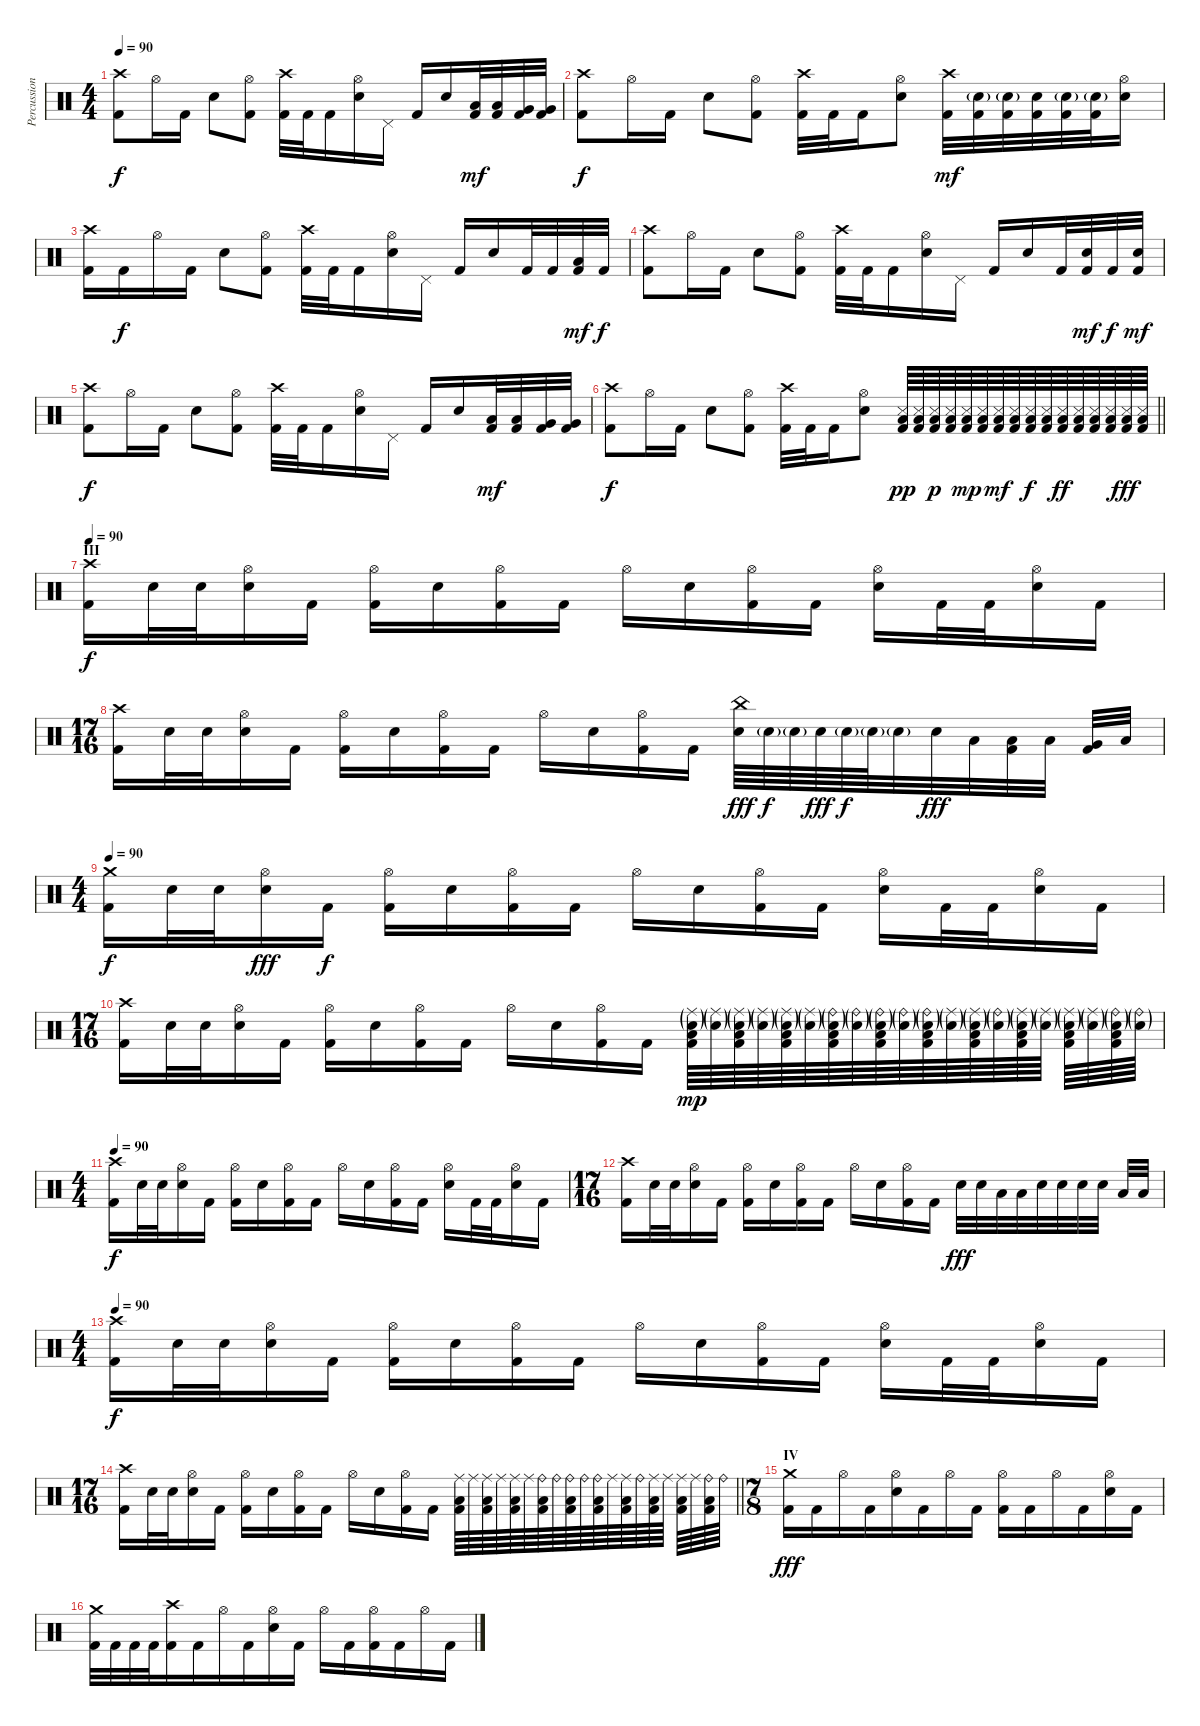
\track ("Percussion" "Percussion") {instrument percussion}
\staff {score}
\articulation defaults
\ts (4 4)
\tempo 90
\clef neutral
\ks c
("Crash high (hit)" "Kick (hit) 2").8{dy f} "Hi-Hat (open)".16 "Kick (hit) 2".16 "Snare (hit) 2".8 ("Hi-Hat (open)" "Kick (hit) 2").8 ("Crash high (hit)" "Kick (hit) 2").32 "Kick (hit) 2".32 "Kick (hit) 2".16 ("Hi-Hat (open)" "Snare (hit) 2").16 "Pedal Hi-Hat (hit)".16 "Kick (hit) 2".16 "Snare (hit) 2".16 ("Low Tom (hit)" "Kick (hit) 2").32{dy mf} ("Low Tom (hit)" "Kick (hit) 2").32 ("Very Low Tom (hit)" "Kick (hit) 2").32 ("Very Low Tom (hit)" "Kick (hit) 2").32 |
("Crash high (hit)" "Kick (hit) 2").8{dy f} "Hi-Hat (open)".16 "Kick (hit) 2".16 "Snare (hit) 2".8 ("Hi-Hat (open)" "Kick (hit) 2").8 ("Crash high (hit)" "Kick (hit) 2").32 "Kick (hit) 2".32 "Kick (hit) 2".16 ("Hi-Hat (open)" "Snare (hit) 2").8 ("Crash high (hit)" "Kick (hit) 2").32{dy mf} ("Snare (hit) 2"{g} "Kick (hit) 2").32 ("Snare (hit) 2"{g} "Kick (hit) 2").32 ("Snare (hit) 2" "Kick (hit) 2").32 ("Snare (hit) 2"{g} "Kick (hit) 2").32 ("Snare (hit) 2"{g} "Kick (hit) 2").32 ("Hi-Hat (open)" "Snare (hit) 2").16 |
("Crash high (hit)" "Kick (hit) 2").16 "Kick (hit) 2".16{dy f} "Hi-Hat (open)".16 "Kick (hit) 2".16 "Snare (hit) 2".8 ("Hi-Hat (open)" "Kick (hit) 2").8 ("Crash high (hit)" "Kick (hit) 2").32 "Kick (hit) 2".32 "Kick (hit) 2".16 ("Hi-Hat (open)" "Snare (hit) 2").16 "Pedal Hi-Hat (hit)".16 "Kick (hit) 2".16 "Snare (hit) 2".16 "Kick (hit) 2".32 "Kick (hit) 2".32 ("Low Floor Tom (hit)" "Kick (hit) 2").32{dy mf} "Kick (hit) 2".32{dy f} |
("Crash high (hit)" "Kick (hit) 2").8 "Hi-Hat (open)".16 "Kick (hit) 2".16 "Snare (hit) 2".8 ("Hi-Hat (open)" "Kick (hit) 2").8 ("Crash high (hit)" "Kick (hit) 2").32 "Kick (hit) 2".32 "Kick (hit) 2".16 ("Hi-Hat (open)" "Snare (hit) 2").16 "Pedal Hi-Hat (hit)".16 "Kick (hit) 2".16 "Snare (hit) 2".16 "Kick (hit) 2".32 ("Snare (hit) 2" "Kick (hit) 2").32{dy mf} "Kick (hit) 2".32{dy f} ("Snare (hit) 2" "Kick (hit) 2").32{dy mf} |
("Crash high (hit)" "Kick (hit) 2").8{dy f} "Hi-Hat (open)".16 "Kick (hit) 2".16 "Snare (hit) 2".8 ("Hi-Hat (open)" "Kick (hit) 2").8 ("Crash high (hit)" "Kick (hit) 2").32 "Kick (hit) 2".32 "Kick (hit) 2".16 ("Hi-Hat (open)" "Snare (hit) 2").16 "Pedal Hi-Hat (hit)".16 "Kick (hit) 2".16 "Snare (hit) 2".16 ("Low Tom (hit)" "Kick (hit) 2").32{dy mf} ("Low Tom (hit)" "Kick (hit) 2").32 ("Very Low Tom (hit)" "Kick (hit) 2").32 ("Very Low Tom (hit)" "Kick (hit) 2").32 |
\barLineRight lightlight
("Crash high (hit)" "Kick (hit) 2").8{dy f} "Hi-Hat (open)".16 "Kick (hit) 2".16 "Snare (hit) 2".8 ("Hi-Hat (open)" "Kick (hit) 2").8 ("Crash high (hit)" "Kick (hit) 2").32 "Kick (hit) 2".32 "Kick (hit) 2".16 ("Hi-Hat (open)" "Snare (hit) 2").8 ("Snare (side stick) 3" "Low Floor Tom (hit)" "Kick (hit) 2").64{dy pp} ("Snare (side stick) 3" "Low Floor Tom (hit)" "Kick (hit) 2").64 ("Snare (side stick) 3" "Low Floor Tom (hit)" "Kick (hit) 2").64{dy p} ("Snare (side stick) 3" "Low Floor Tom (hit)" "Kick (hit) 2").64 ("Snare (side stick) 3" "Low Floor Tom (hit)" "Kick (hit) 2").64{dy mp} ("Snare (side stick) 3" "Low Floor Tom (hit)" "Kick (hit) 2").64 ("Snare (side stick) 3" "Low Floor Tom (hit)" "Kick (hit) 2").64{dy mf} ("Snare (side stick) 3" "Low Floor Tom (hit)" "Kick (hit) 2").64 ("Snare (side stick) 3" "Low Floor Tom (hit)" "Kick (hit) 2").64{dy f} ("Snare (side stick) 3" "Low Floor Tom (hit)" "Kick (hit) 2").64 ("Snare (side stick) 3" "Low Floor Tom (hit)" "Kick (hit) 2").64{dy ff} ("Snare (side stick) 3" "Low Floor Tom (hit)" "Kick (hit) 2").64 ("Snare (side stick) 3" "Low Floor Tom (hit)" "Kick (hit) 2").64 ("Snare (side stick) 3" "Low Floor Tom (hit)" "Kick (hit) 2").64 ("Snare (side stick) 3" "Low Floor Tom (hit)" "Kick (hit) 2").64{dy fff} ("Snare (side stick) 3" "Low Floor Tom (hit)" "Kick (hit) 2").64 |
\section ("" "III")
\tempo 90
("Crash high (hit)" "Kick (hit) 2").16{dy f} "Snare (hit) 2".32 "Snare (hit) 2".32 ("Hi-Hat (open)" "Snare (hit) 2").16 "Kick (hit) 2".16 ("Hi-Hat (open)" "Kick (hit) 2").16 "Snare (hit) 2".16 ("Hi-Hat (open)" "Kick (hit) 2").16 "Kick (hit) 2".16 "Hi-Hat (open)".16 "Snare (hit) 2".16 ("Hi-Hat (open)" "Kick (hit) 2").16 "Kick (hit) 2".16 ("Hi-Hat (open)" "Snare (hit) 2").16 "Kick (hit) 2".32 "Kick (hit) 2".32 ("Hi-Hat (open)" "Snare (hit) 2").16 "Kick (hit) 2".16 |
\ts (17 16)
("Crash high (hit)" "Kick (hit) 2").16 "Snare (hit) 2".32 "Snare (hit) 2".32 ("Hi-Hat (open)" "Snare (hit) 2").16 "Kick (hit) 2".16 ("Hi-Hat (open)" "Kick (hit) 2").16 "Snare (hit) 2".16 ("Hi-Hat (open)" "Kick (hit) 2").16 "Kick (hit) 2".16 "Hi-Hat (open)".16 "Snare (hit) 2".16 ("Hi-Hat (open)" "Kick (hit) 2").16 "Kick (hit) 2".16 ("China (hit)" "Snare (hit) 2").64{dy fff} "Snare (hit) 2"{g}.64{dy f} "Snare (hit) 2"{g}.64 "Snare (hit) 2".64{dy fff} "Snare (hit) 2"{g}.64{dy f} "Snare (hit) 2"{g}.64 "Snare (hit) 2"{g}.32 "Snare (hit) 2".32{dy fff} "Low Tom (hit)".32 ("Low Tom (hit)" "Kick (hit) 2").32 "Low Tom (hit)".32 ("Very Low Tom (hit)" "Kick (hit) 2").32 "Low Floor Tom (hit)".32 |
\ts (4 4)
\tempo 90
("Crash medium (hit)" "Kick (hit) 2").16{dy f} "Snare (hit) 2".32 "Snare (hit) 2".32 ("Hi-Hat (open)" "Snare (hit) 2").16{dy fff} "Kick (hit) 2".16{dy f} ("Hi-Hat (open)" "Kick (hit) 2").16 "Snare (hit) 2".16 ("Hi-Hat (open)" "Kick (hit) 2").16 "Kick (hit) 2".16 "Hi-Hat (open)".16 "Snare (hit) 2".16 ("Hi-Hat (open)" "Kick (hit) 2").16 "Kick (hit) 2".16 ("Hi-Hat (open)" "Snare (hit) 2").16 "Kick (hit) 2".32 "Kick (hit) 2".32 ("Hi-Hat (open)" "Snare (hit) 2").16 "Kick (hit) 2".16 |
\ts (17 16)
("Crash high (hit)" "Kick (hit) 2").16 "Snare (hit) 2".32 "Snare (hit) 2".32 ("Hi-Hat (open)" "Snare (hit) 2").16 "Kick (hit) 2".16 ("Hi-Hat (open)" "Kick (hit) 2").16 "Snare (hit) 2".16 ("Hi-Hat (open)" "Kick (hit) 2").16 "Kick (hit) 2".16 "Hi-Hat (open)".16 "Snare (hit) 2".16 ("Hi-Hat (open)" "Kick (hit) 2").16 "Kick (hit) 2".16 ("Snare (hit) 2"{g} "Ride (middle)"{g} "Kick (hit) 2" "Low Floor Tom (hit)").64{dy mp} ("Snare (hit) 2"{g} "Ride (middle)"{g}).64 ("Snare (hit) 2"{g} "Ride (middle)"{g} "Kick (hit) 2" "Low Floor Tom (hit)").64 ("Snare (hit) 2"{g} "Ride (middle)"{g}).64 ("Snare (hit) 2"{g} "Ride (middle)"{g} "Kick (hit) 2" "Low Floor Tom (hit)").64 ("Snare (hit) 2"{g} "Ride (middle)"{g}).64 ("Snare (hit) 2"{g} "Ride (bell)"{g} "Kick (hit) 2" "Low Floor Tom (hit)").64 ("Snare (hit) 2"{g} "Ride (bell)"{g}).64 ("Snare (hit) 2"{g} "Ride (bell)"{g} "Kick (hit) 2" "Low Floor Tom (hit)").64 ("Snare (hit) 2"{g} "Ride (bell)"{g}).64 ("Snare (hit) 2"{g} "Ride (bell)"{g} "Kick (hit) 2" "Low Floor Tom (hit)").64 ("Snare (hit) 2"{g} "Ride (middle)"{g}).64 ("Snare (hit) 2"{g} "Ride (middle)"{g} "Kick (hit) 2" "Low Floor Tom (hit)").64 ("Snare (hit) 2"{g} "Ride (bell)"{g}).64 ("Snare (hit) 2"{g} "Ride (middle)"{g} "Kick (hit) 2" "Low Floor Tom (hit)").64 ("Snare (hit) 2"{g} "Ride (middle)"{g}).64 ("Snare (hit) 2"{g} "Ride (middle)"{g} "Kick (hit) 2" "Low Floor Tom (hit)").64 ("Snare (hit) 2"{g} "Ride (middle)"{g}).64 ("Snare (hit) 2"{g} "Ride (bell)"{g} "Kick (hit) 2" "Low Floor Tom (hit)").64 ("Snare (hit) 2"{g} "Ride (bell)"{g}).64 |
\ts (4 4)
\tempo 90
("Crash high (hit)" "Kick (hit) 2").16{dy f} "Snare (hit) 2".32 "Snare (hit) 2".32 ("Hi-Hat (open)" "Snare (hit) 2").16 "Kick (hit) 2".16 ("Hi-Hat (open)" "Kick (hit) 2").16 "Snare (hit) 2".16 ("Hi-Hat (open)" "Kick (hit) 2").16 "Kick (hit) 2".16 "Hi-Hat (open)".16 "Snare (hit) 2".16 ("Hi-Hat (open)" "Kick (hit) 2").16 "Kick (hit) 2".16 ("Hi-Hat (open)" "Snare (hit) 2").16 "Kick (hit) 2".32 "Kick (hit) 2".32 ("Hi-Hat (open)" "Snare (hit) 2").16 "Kick (hit) 2".16 |
\ts (17 16)
("Crash high (hit)" "Kick (hit) 2").16 "Snare (hit) 2".32 "Snare (hit) 2".32 ("Hi-Hat (open)" "Snare (hit) 2").16 "Kick (hit) 2".16 ("Hi-Hat (open)" "Kick (hit) 2").16 "Snare (hit) 2".16 ("Hi-Hat (open)" "Kick (hit) 2").16 "Kick (hit) 2".16 "Hi-Hat (open)".16 "Snare (hit) 2".16 ("Hi-Hat (open)" "Kick (hit) 2").16 "Kick (hit) 2".16 "Snare (hit) 2".32{dy fff} "Snare (hit) 2".32 "Low Floor Tom (hit)".32 "Low Floor Tom (hit)".32 "Snare (hit) 2".32 "Snare (hit) 2".32 "Snare (hit) 2".32 "Snare (hit) 2".32 "Low Floor Tom (hit)".32 "Low Floor Tom (hit)".32 |
\ts (4 4)
\tempo 90
("Crash high (hit)" "Kick (hit) 2").16{dy f} "Snare (hit) 2".32 "Snare (hit) 2".32 ("Hi-Hat (open)" "Snare (hit) 2").16 "Kick (hit) 2".16 ("Hi-Hat (open)" "Kick (hit) 2").16 "Snare (hit) 2".16 ("Hi-Hat (open)" "Kick (hit) 2").16 "Kick (hit) 2".16 "Hi-Hat (open)".16 "Snare (hit) 2".16 ("Hi-Hat (open)" "Kick (hit) 2").16 "Kick (hit) 2".16 ("Hi-Hat (open)" "Snare (hit) 2").16 "Kick (hit) 2".32 "Kick (hit) 2".32 ("Hi-Hat (open)" "Snare (hit) 2").16 "Kick (hit) 2".16 |
\ts (17 16)
\barLineRight lightlight
("Crash high (hit)" "Kick (hit) 2").16 "Snare (hit) 2".32 "Snare (hit) 2".32 ("Hi-Hat (open)" "Snare (hit) 2").16 "Kick (hit) 2".16 ("Hi-Hat (open)" "Kick (hit) 2").16 "Snare (hit) 2".16 ("Hi-Hat (open)" "Kick (hit) 2").16 "Kick (hit) 2".16 "Hi-Hat (open)".16 "Snare (hit) 2".16 ("Hi-Hat (open)" "Kick (hit) 2").16 "Kick (hit) 2".16 ("Ride (middle)" "Kick (hit) 2" "Low Floor Tom (hit)").64 "Ride (middle)".64 ("Ride (middle)" "Kick (hit) 2" "Low Floor Tom (hit)").64 "Ride (middle)".64 ("Ride (middle)" "Kick (hit) 2" "Low Floor Tom (hit)").64 "Ride (middle)".64 ("Ride (bell)" "Kick (hit) 2" "Low Floor Tom (hit)").64 "Ride (bell)".64 ("Ride (bell)" "Kick (hit) 2" "Low Floor Tom (hit)").64 "Ride (bell)".64 ("Ride (bell)" "Kick (hit) 2" "Low Floor Tom (hit)").64 "Ride (middle)".64 ("Ride (middle)" "Kick (hit) 2" "Low Floor Tom (hit)").64 "Ride (bell)".64 ("Ride (middle)" "Kick (hit) 2" "Low Floor Tom (hit)").64 "Ride (middle)".64 ("Ride (middle)" "Kick (hit) 2" "Low Floor Tom (hit)").64 "Ride (middle)".64 ("Ride (bell)" "Kick (hit) 2" "Low Floor Tom (hit)").64 "Ride (bell)".64 |
\ts (7 8)
\section ("" "IV")
("Crash medium (hit)" "Kick (hit) 2").16{dy fff} "Kick (hit) 2".16 "Hi-Hat (open)".16 "Kick (hit) 2".16 ("Hi-Hat (open)" "Snare (hit) 2").16 "Kick (hit) 2".16 "Hi-Hat (open)".16 "Kick (hit) 2".16 ("Hi-Hat (open)" "Kick (hit) 2").16 "Kick (hit) 2".16 "Hi-Hat (open)".16 "Kick (hit) 2".16 ("Hi-Hat (open)" "Snare (hit) 2").16 "Kick (hit) 2".16 |
("Crash medium (hit)" "Kick (hit) 2").32 "Kick (hit) 2".32 "Kick (hit) 2".32 "Kick (hit) 2".32 ("Crash high (hit)" "Kick (hit) 2").16 "Kick (hit) 2".16 "Hi-Hat (open)".16 "Kick (hit) 2".16 ("Hi-Hat (open)" "Snare (hit) 2").16 "Kick (hit) 2".16 "Hi-Hat (open)".16 "Kick (hit) 2".16 ("Hi-Hat (open)" "Kick (hit) 2").16 "Kick (hit) 2".16 "Hi-Hat (open)".16 "Kick (hit) 2".16
